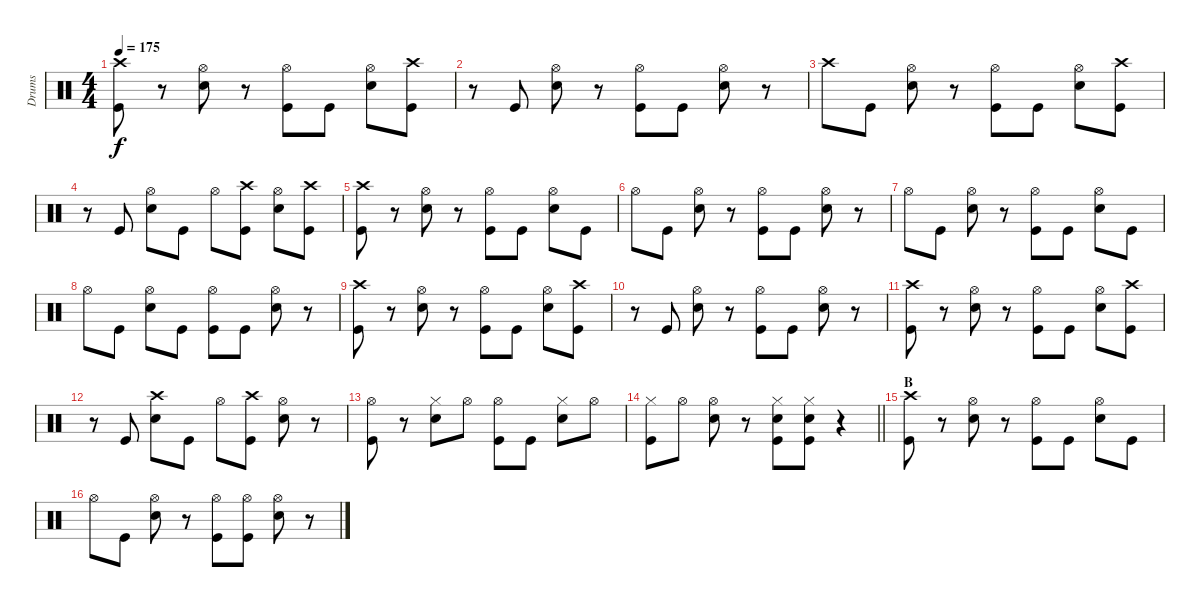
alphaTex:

\track ("Drums" "Drums") {instrument percussion}
\staff {score}
\articulation defaults
\ts (4 4)
\tempo 175
\clef neutral
\ks c
("Crash high (hit)" "Kick (hit)").8{dy f} r.8 ("Hi-Hat (open)" "Snare (hit) 2").8 r.8 ("Hi-Hat (open)" "Kick (hit)").8 "Kick (hit)".8 ("Hi-Hat (open)" "Snare (hit) 2").8 ("Crash high (hit)" "Kick (hit)").8 |
r.8 "Kick (hit)".8 ("Hi-Hat (open)" "Snare (hit) 2").8 r.8 ("Hi-Hat (open)" "Kick (hit)").8 "Kick (hit)".8 ("Hi-Hat (open)" "Snare (hit) 2").8 r.8 |
"Crash high (hit)".8 "Kick (hit)".8 ("Hi-Hat (open)" "Snare (hit) 2").8 r.8 ("Hi-Hat (open)" "Kick (hit)").8 "Kick (hit)".8 ("Hi-Hat (open)" "Snare (hit) 2").8 ("Crash high (hit)" "Kick (hit)").8 |
r.8 "Kick (hit)".8 ("Hi-Hat (open)" "Snare (hit) 2").8 "Kick (hit)".8 "Hi-Hat (open)".8 ("Crash high (hit)" "Kick (hit)").8 ("Hi-Hat (open)" "Snare (hit) 2").8 ("Crash high (hit)" "Kick (hit)").8 |
("Crash high (hit)" "Kick (hit)").8 r.8 ("Hi-Hat (open)" "Snare (hit) 2").8 r.8 ("Hi-Hat (open)" "Kick (hit)").8 "Kick (hit)".8 ("Hi-Hat (open)" "Snare (hit) 2").8 "Kick (hit)".8 |
"Hi-Hat (open)".8 "Kick (hit)".8 ("Hi-Hat (open)" "Snare (hit) 2").8 r.8 ("Hi-Hat (open)" "Kick (hit)").8 "Kick (hit)".8 ("Hi-Hat (open)" "Snare (hit) 2").8 r.8 |
"Hi-Hat (open)".8 "Kick (hit)".8 ("Hi-Hat (open)" "Snare (hit) 2").8 r.8 ("Hi-Hat (open)" "Kick (hit)").8 "Kick (hit)".8 ("Hi-Hat (open)" "Snare (hit) 2").8 "Kick (hit)".8 |
"Hi-Hat (open)".8 "Kick (hit)".8 ("Hi-Hat (open)" "Snare (hit) 2").8 "Kick (hit)".8 ("Hi-Hat (open)" "Kick (hit)").8 "Kick (hit)".8 ("Hi-Hat (open)" "Snare (hit) 2").8 r.8 |
("Crash high (hit)" "Kick (hit)").8 r.8 ("Hi-Hat (open)" "Snare (hit) 2").8 r.8 ("Hi-Hat (open)" "Kick (hit)").8 "Kick (hit)".8 ("Hi-Hat (open)" "Snare (hit) 2").8 ("Crash high (hit)" "Kick (hit)").8 |
r.8 "Kick (hit)".8 ("Hi-Hat (open)" "Snare (hit) 2").8 r.8 ("Hi-Hat (open)" "Kick (hit)").8 "Kick (hit)".8 ("Hi-Hat (open)" "Snare (hit) 2").8 r.8 |
("Crash high (hit)" "Kick (hit)").8 r.8 ("Hi-Hat (open)" "Snare (hit) 2").8 r.8 ("Hi-Hat (open)" "Kick (hit)").8 "Kick (hit)".8 ("Hi-Hat (open)" "Snare (hit) 2").8 ("Crash high (hit)" "Kick (hit)").8 |
r.8 "Kick (hit)".8 ("Crash high (hit)" "Snare (hit) 2").8 "Kick (hit)".8 "Hi-Hat (open)".8 ("Crash high (hit)" "Kick (hit)").8 ("Hi-Hat (open)" "Snare (hit) 2").8 r.8 |
("Hi-Hat (open)" "Kick (hit)").8 r.8 ("Hi-Hat (closed)" "Snare (hit) 2").8 "Hi-Hat (open)".8 ("Hi-Hat (open)" "Kick (hit)").8 "Kick (hit)".8 ("Hi-Hat (closed)" "Snare (hit) 2").8 "Hi-Hat (open)".8 |
\barLineRight lightlight
("Hi-Hat (closed)" "Kick (hit)").8 "Hi-Hat (open)".8 ("Hi-Hat (open)" "Snare (hit) 2").8 r.8 ("Hi-Hat (closed)" "Snare (hit) 2" "Kick (hit)").8 ("Hi-Hat (closed)" "Snare (hit) 2" "Kick (hit)").8 r.4 |
\section ("" "B")
("Crash high (hit)" "Kick (hit)").8 r.8 ("Hi-Hat (open)" "Snare (hit) 2").8 r.8 ("Hi-Hat (open)" "Kick (hit)").8 "Kick (hit)".8 ("Hi-Hat (open)" "Snare (hit) 2").8 "Kick (hit)".8 |
"Hi-Hat (open)".8 "Kick (hit)".8 ("Hi-Hat (open)" "Snare (hit) 2").8 r.8 ("Hi-Hat (open)" "Kick (hit)").8 ("Hi-Hat (open)" "Kick (hit)").8 ("Hi-Hat (open)" "Snare (hit) 2").8 r.8
